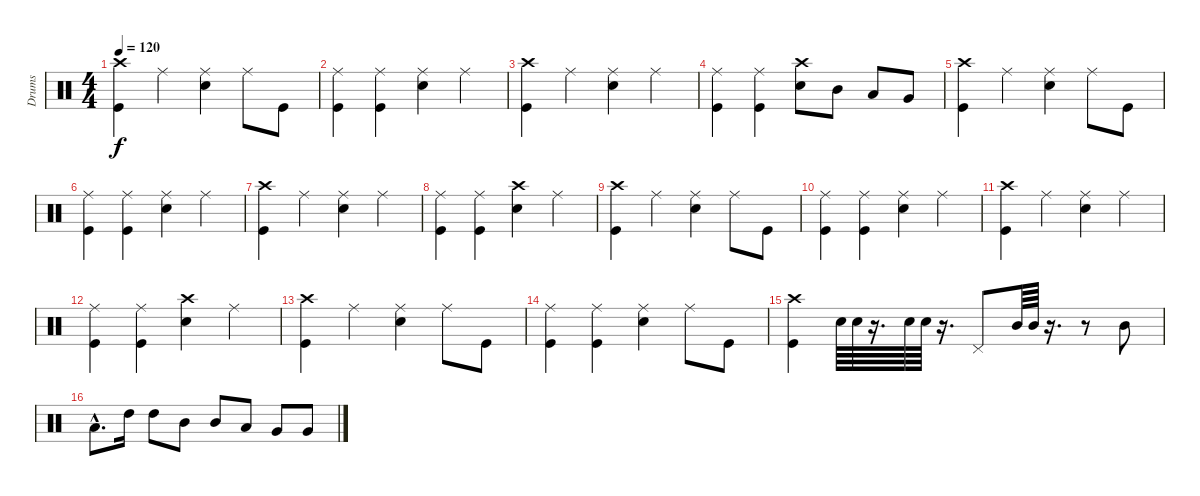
\track ("Drums" "Drums") {instrument percussion}
\staff {score}
\articulation defaults
\ts (4 4)
\tempo 120
\clef neutral
\ks c
("Crash high (hit)" "Kick (hit)").4{dy f} "Ride (middle)".4 ("Ride (middle)" "Snare (hit) 2").4 "Ride (middle)".8 "Kick (hit)".8 |
("Ride (middle)" "Kick (hit)").4 ("Ride (middle)" "Kick (hit)").4 ("Ride (middle)" "Snare (hit) 2").4 "Ride (middle)".4 |
("Crash high (hit)" "Kick (hit)").4 "Ride (middle)".4 ("Ride (middle)" "Snare (hit) 2").4 "Ride (middle)".4 |
("Ride (middle)" "Kick (hit)").4 ("Ride (middle)" "Kick (hit)").4 ("Crash high (hit)" "Snare (hit) 2").8 "Mid Tom (hit)".8 "Low Tom (hit)".8 "Very Low Tom (hit)".8 |
("Crash high (hit)" "Kick (hit)").4 "Ride (middle)".4 ("Ride (middle)" "Snare (hit) 2").4 "Ride (middle)".8 "Kick (hit)".8 |
("Ride (middle)" "Kick (hit)").4 ("Ride (middle)" "Kick (hit)").4 ("Ride (middle)" "Snare (hit) 2").4 "Ride (middle)".4 |
("Crash high (hit)" "Kick (hit)").4 "Ride (middle)".4 ("Ride (middle)" "Snare (hit) 2").4 "Ride (middle)".4 |
("Ride (middle)" "Kick (hit)").4 ("Ride (middle)" "Kick (hit)").4 ("Crash high (hit)" "Snare (hit) 2").4 "Ride (middle)".4 |
("Crash high (hit)" "Kick (hit)").4 "Ride (middle)".4 ("Ride (middle)" "Snare (hit) 2").4 "Ride (middle)".8 "Kick (hit)".8 |
("Ride (middle)" "Kick (hit)").4 ("Ride (middle)" "Kick (hit)").4 ("Ride (middle)" "Snare (hit) 2").4 "Ride (middle)".4 |
("Crash high (hit)" "Kick (hit)").4 "Ride (middle)".4 ("Ride (middle)" "Snare (hit) 2").4 "Ride (middle)".4 |
("Ride (middle)" "Kick (hit)").4 ("Ride (middle)" "Kick (hit)").4 ("Crash high (hit)" "Snare (hit) 2").4 "Ride (middle)".4 |
("Crash high (hit)" "Kick (hit)").4 "Ride (middle)".4 ("Ride (middle)" "Snare (hit) 2").4 "Ride (middle)".8 "Kick (hit)".8 |
("Ride (middle)" "Kick (hit)").4 ("Ride (middle)" "Kick (hit)").4 ("Ride (middle)" "Snare (hit) 2").4 "Ride (middle)".8 "Kick (hit)".8 |
("Crash high (hit)" "Kick (hit)").4 "Snare (hit) 2".64 "Snare (hit) 2".64 r.16{d} "Snare (hit) 2".64 "Snare (hit) 2".64 r.16{d} "Pedal Hi-Hat (hit)".8 "Mid Tom (hit)".64 "Mid Tom (hit)".64 r.16{d} r.8 "Mid Tom (hit)".8 |
"Low Tom (hit)"{hac}.8{d} "High Tom (hit)".16 "High Tom (hit)".8 "Mid Tom (hit)".8 "Mid Tom (hit)".8 "Low Tom (hit)".8 "Very Low Tom (hit)".8 "Very Low Tom (hit)".8
